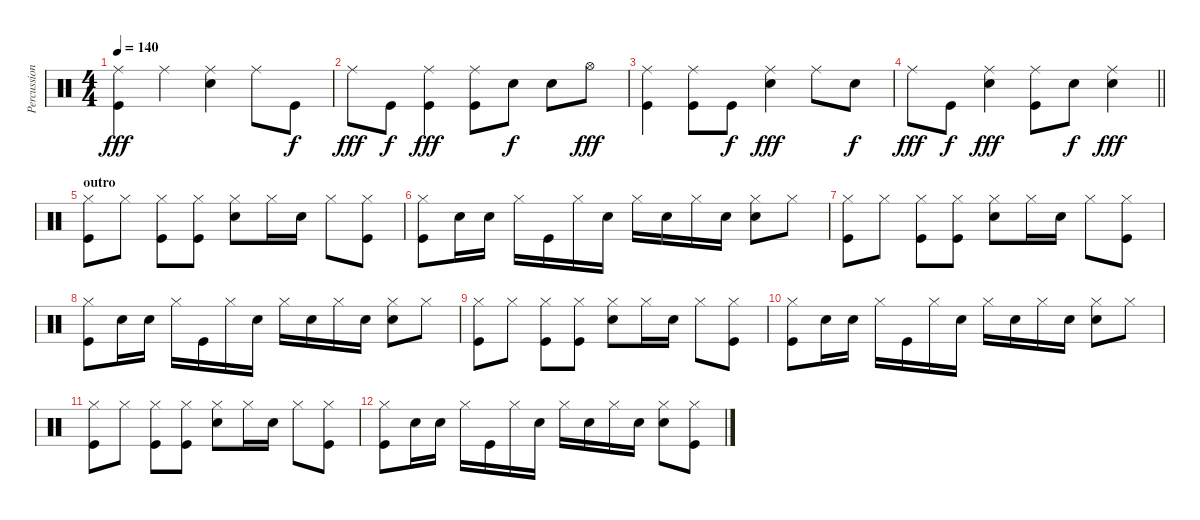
\track ("Percussion" "Percussion") {instrument percussion}
\staff {score}
\articulation defaults
\ts (4 4)
\tempo 140
\clef neutral
\ks c
("Ride (middle)" "Kick (hit)").4{dy fff} "Ride (middle)".4 ("Ride (middle)" "Snare (hit) 2").4 "Ride (middle)".8 "Kick (hit)".8{dy f} |
"Ride (middle)".8{dy fff} "Kick (hit)".8{dy f} ("Ride (middle)" "Kick (hit)").4{dy fff} ("Ride (middle)" "Kick (hit)").8 "Snare (hit) 2".8{dy f} "Snare (hit) 2".8 "Hi-Hat (open)".8{dy fff} |
("Ride (middle)" "Kick (hit)").4 ("Ride (middle)" "Kick (hit)").8 "Kick (hit)".8{dy f} ("Ride (middle)" "Snare (hit) 2").4{dy fff} "Ride (middle)".8 "Snare (hit) 2".8{dy f} |
\barLineRight lightlight "Ride (middle)".8{dy fff} "Kick (hit)".8{dy f}
("Snare (hit) 2" "Ride (middle)").4{dy fff} ("Kick (hit)" "Ride (middle)").8 "Snare (hit) 2".8{dy f} ("Snare (hit) 2" "Ride (middle)").4{dy fff} |
\section ("" "outro")
("Hi-Hat (closed)" "Kick (hit)").8 "Hi-Hat (closed)".8 ("Kick (hit)" "Hi-Hat (closed)").8 ("Kick (hit)" "Hi-Hat (closed)").8 ("Snare (hit) 2" "Hi-Hat (closed)").8 "Hi-Hat (closed)".16 "Snare (hit) 2".16 "Hi-Hat (closed)".8 ("Hi-Hat (closed)" "Kick (hit)").8 |
("Hi-Hat (closed)" "Kick (hit)").8 "Snare (hit) 2".16 "Snare (hit) 2".16 "Hi-Hat (closed)".16 "Kick (hit)".16 "Hi-Hat (closed)".16 "Snare (hit) 2".16 "Hi-Hat (closed)".16 "Snare (hit) 2".16 "Hi-Hat (closed)".16 "Snare (hit) 2".16 ("Hi-Hat (closed)" "Snare (hit) 2").8 "Hi-Hat (closed)".8 |
("Hi-Hat (closed)" "Kick (hit)").8 "Hi-Hat (closed)".8 ("Kick (hit)" "Hi-Hat (closed)").8 ("Kick (hit)" "Hi-Hat (closed)").8 ("Snare (hit) 2" "Hi-Hat (closed)").8 "Hi-Hat (closed)".16 "Snare (hit) 2".16 "Hi-Hat (closed)".8 ("Hi-Hat (closed)" "Kick (hit)").8 |
("Hi-Hat (closed)" "Kick (hit)").8 "Snare (hit) 2".16 "Snare (hit) 2".16 "Hi-Hat (closed)".16 "Kick (hit)".16 "Hi-Hat (closed)".16 "Snare (hit) 2".16 "Hi-Hat (closed)".16 "Snare (hit) 2".16 "Hi-Hat (closed)".16 "Snare (hit) 2".16 ("Hi-Hat (closed)" "Snare (hit) 2").8 "Hi-Hat (closed)".8 |
("Hi-Hat (closed)" "Kick (hit)").8 "Hi-Hat (closed)".8 ("Kick (hit)" "Hi-Hat (closed)").8 ("Kick (hit)" "Hi-Hat (closed)").8 ("Snare (hit) 2" "Hi-Hat (closed)").8 "Hi-Hat (closed)".16 "Snare (hit) 2".16 "Hi-Hat (closed)".8 ("Hi-Hat (closed)" "Kick (hit)").8 |
("Hi-Hat (closed)" "Kick (hit)").8 "Snare (hit) 2".16 "Snare (hit) 2".16 "Hi-Hat (closed)".16 "Kick (hit)".16 "Hi-Hat (closed)".16 "Snare (hit) 2".16 "Hi-Hat (closed)".16 "Snare (hit) 2".16 "Hi-Hat (closed)".16 "Snare (hit) 2".16 ("Hi-Hat (closed)" "Snare (hit) 2").8 "Hi-Hat (closed)".8 |
("Hi-Hat (closed)" "Kick (hit)").8 "Hi-Hat (closed)".8 ("Kick (hit)" "Hi-Hat (closed)").8 ("Kick (hit)" "Hi-Hat (closed)").8 ("Snare (hit) 2" "Hi-Hat (closed)").8 "Hi-Hat (closed)".16 "Snare (hit) 2".16 "Hi-Hat (closed)".8 ("Hi-Hat (closed)" "Kick (hit)").8 |
("Hi-Hat (closed)" "Kick (hit)").8 "Snare (hit) 2".16 "Snare (hit) 2".16 "Hi-Hat (closed)".16 "Kick (hit)".16 "Hi-Hat (closed)".16 "Snare (hit) 2".16 "Hi-Hat (closed)".16 "Snare (hit) 2".16 "Hi-Hat (closed)".16 "Snare (hit) 2".16 ("Hi-Hat (closed)" "Snare (hit) 2").8 ("Hi-Hat (closed)" "Kick (hit)").8
